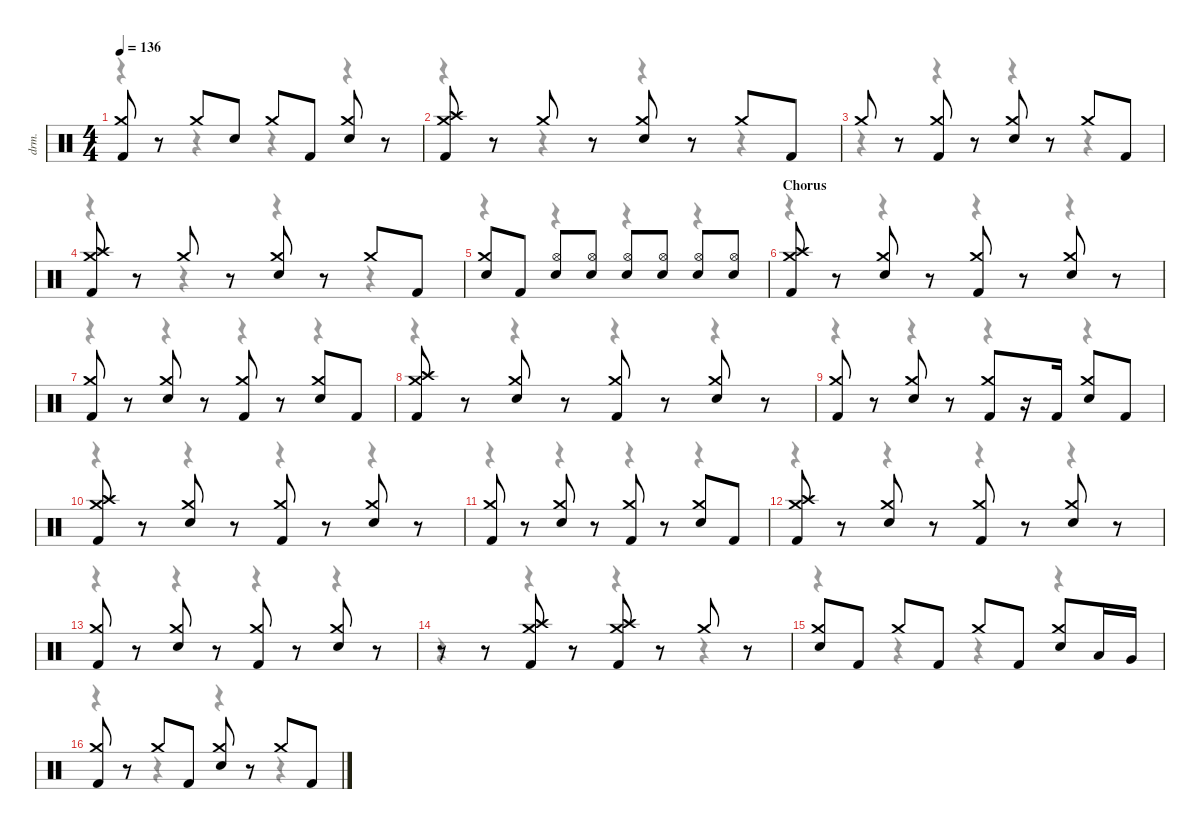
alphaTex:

\defaultSystemsLayout 4
\hideDynamics
\bracketExtendMode nobrackets
\track ("Drums" "drm.") {instrument percussion}
\staff {score}
\articulation defaults
\voice
\ts (4 4)
\tempo 136
\clef neutral
\ks c
("Crash medium (hit)" "Kick (hit) 2").8{dy f beam Up} r.8{beam Up} "Crash medium (hit)".8{beam Up} "Snare (hit) 2".8{beam Up} "Crash medium (hit)".8{beam Up} "Kick (hit) 2".8{beam Up} ("Crash medium (hit)" "Snare (hit) 2").8{beam Up} r.8{beam Up} |
("Crash medium (hit)" "Crash high (hit)" "Kick (hit) 2").8{beam Up} r.8{beam Up} "Crash medium (hit)".8{beam Up} r.8{beam Up} ("Crash medium (hit)" "Snare (hit) 2").8{beam Up} r.8{beam Up} "Crash medium (hit)".8{beam Up} "Kick (hit) 2".8{beam Up} |
"Crash medium (hit)".8{beam Up} r.8{beam Up} ("Crash medium (hit)" "Kick (hit) 2").8{beam Up} r.8{beam Up} ("Crash medium (hit)" "Snare (hit) 2").8{beam Up} r.8{beam Up} "Crash medium (hit)".8{beam Up} "Kick (hit) 2".8{beam Up} |
("Crash medium (hit)" "Crash high (hit)" "Kick (hit) 2").8{beam Up} r.8{beam Up} "Crash medium (hit)".8{beam Up} r.8{beam Up} ("Crash medium (hit)" "Snare (hit) 2").8{beam Up} r.8{beam Up} "Crash medium (hit)".8{beam Up} "Kick (hit) 2".8{beam Up} |
("Crash medium (hit)" "Snare (hit) 2").8{beam Up} "Kick (hit) 2".8{beam Up} ("Hi-Hat (open)" "Snare (hit) 2").8{beam Up} ("Hi-Hat (open)" "Snare (hit) 2").8{beam Up} ("Hi-Hat (open)" "Snare (hit) 2").8{beam Up} ("Hi-Hat (open)" "Snare (hit) 2").8{beam Up} ("Hi-Hat (open)" "Snare (hit) 2").8{beam Up} ("Hi-Hat (open)" "Snare (hit) 2").8{beam Up} |
\section ("" "Chorus")
("Crash medium (hit)" "Crash high (hit)" "Kick (hit) 2").8{beam Up} r.8{beam Up} ("Crash medium (hit)" "Snare (hit) 2").8{beam Up} r.8{beam Up} ("Crash medium (hit)" "Kick (hit) 2").8{beam Up} r.8{beam Up} ("Crash medium (hit)" "Snare (hit) 2").8{beam Up} r.8{beam Up} |
("Crash medium (hit)" "Kick (hit) 2").8{beam Up} r.8{beam Up} ("Crash medium (hit)" "Snare (hit) 2").8{beam Up} r.8{beam Up} ("Crash medium (hit)" "Kick (hit) 2").8{beam Up} r.8{beam Up} ("Crash medium (hit)" "Snare (hit) 2").8{beam Up} "Kick (hit) 2".8{beam Up} |
("Crash medium (hit)" "Crash high (hit)" "Kick (hit) 2").8{beam Up} r.8{beam Up} ("Crash medium (hit)" "Snare (hit) 2").8{beam Up} r.8{beam Up} ("Crash medium (hit)" "Kick (hit) 2").8{beam Up} r.8{beam Up} ("Crash medium (hit)" "Snare (hit) 2").8{beam Up} r.8{beam Up} |
("Crash medium (hit)" "Kick (hit) 2").8{beam Up} r.8{beam Up} ("Crash medium (hit)" "Snare (hit) 2").8{beam Up} r.8{beam Up} ("Crash medium (hit)" "Kick (hit) 2").8{beam Up} r.16{beam Up} "Kick (hit) 2".16{beam Up} ("Crash medium (hit)" "Snare (hit) 2").8{beam Up} "Kick (hit) 2".8{beam Up} |
("Crash medium (hit)" "Crash high (hit)" "Kick (hit) 2").8{beam Up} r.8{beam Up} ("Crash medium (hit)" "Snare (hit) 2").8{beam Up} r.8{beam Up} ("Crash medium (hit)" "Kick (hit) 2").8{beam Up} r.8{beam Up} ("Crash medium (hit)" "Snare (hit) 2").8{beam Up} r.8{beam Up} |
("Crash medium (hit)" "Kick (hit) 2").8{beam Up} r.8{beam Up} ("Crash medium (hit)" "Snare (hit) 2").8{beam Up} r.8{beam Up} ("Crash medium (hit)" "Kick (hit) 2").8{beam Up} r.8{beam Up} ("Crash medium (hit)" "Snare (hit) 2").8{beam Up} "Kick (hit) 2".8{beam Up} |
("Crash medium (hit)" "Crash high (hit)" "Kick (hit) 2").8{beam Up} r.8{beam Up} ("Crash medium (hit)" "Snare (hit) 2").8{beam Up} r.8{beam Up} ("Crash medium (hit)" "Kick (hit) 2").8{beam Up} r.8{beam Up} ("Crash medium (hit)" "Snare (hit) 2").8{beam Up} r.8{beam Up} |
("Crash medium (hit)" "Kick (hit) 2").8{beam Up} r.8{beam Up} ("Crash medium (hit)" "Snare (hit) 2").8{beam Up} r.8{beam Up} ("Crash medium (hit)" "Kick (hit) 2").8{beam Up} r.8{beam Up} ("Crash medium (hit)" "Snare (hit) 2").8{beam Up} r.8{beam Up} |
r.8{beam Up} r.8{beam Up} ("Crash medium (hit)" "Crash high (hit)" "Kick (hit) 2").8{beam Up} r.8{beam Up} ("Crash medium (hit)" "Crash high (hit)" "Kick (hit) 2").8{beam Up} r.8{beam Up} "Crash medium (hit)".8{beam Up} r.8{beam Up} |
("Crash medium (hit)" "Snare (hit) 2").8{beam Up} "Kick (hit) 2".8{beam Up} "Crash medium (hit)".8{beam Up} "Kick (hit) 2".8{beam Up} "Crash medium (hit)".8{beam Up} "Kick (hit) 2".8{beam Up} ("Crash medium (hit)" "Snare (hit) 2").8{beam Up} "Low Tom (hit)".16{beam Up} "Very Low Tom (hit)".16{beam Up} |
("Crash medium (hit)" "Kick (hit) 2").8{beam Up} r.8{beam Up} "Crash medium (hit)".8{beam Up} "Kick (hit) 2".8{beam Up} ("Crash medium (hit)" "Snare (hit) 2").8{beam Up} r.8{beam Up} "Crash medium (hit)".8{beam Up} "Kick (hit) 2".8{beam Up}
\voice
\clef neutral
\ottava regular
\simile none
\ks c
r.4{dy mf beam Down} r.4{beam Down} r.4{beam Down} r.4{beam Down} |
r.4{beam Down} r.4{beam Down} r.4{beam Down} r.4{beam Down} |
r.4{beam Down} r.4{beam Down} r.4{beam Down} r.4{beam Down} |
r.4{beam Down} r.4{beam Down} r.4{beam Down} r.4{beam Down} |
r.4{beam Down} r.4{beam Down} r.4{beam Down} r.4{beam Down} |
r.4{beam Down} r.4{beam Down} r.4{beam Down} r.4{beam Down} |
r.4{beam Down} r.4{beam Down} r.4{beam Down} r.4{beam Down} |
r.4{beam Down} r.4{beam Down} r.4{beam Down} r.4{beam Down} |
r.4{beam Down} r.4{beam Down} r.4{beam Down} r.4{beam Down} |
r.4{beam Down} r.4{beam Down} r.4{beam Down} r.4{beam Down} |
r.4{beam Down} r.4{beam Down} r.4{beam Down} r.4{beam Down} |
r.4{beam Down} r.4{beam Down} r.4{beam Down} r.4{beam Down} |
r.4{beam Down} r.4{beam Down} r.4{beam Down} r.4{beam Down} |
r.4{beam Down} r.4{beam Down} r.4{beam Down} r.4{beam Down} |
r.4{beam Down} r.4{beam Down} r.4{beam Down} r.4{beam Down} |
r.4{beam Down} r.4{beam Down} r.4{beam Down} r.4{beam Down}
